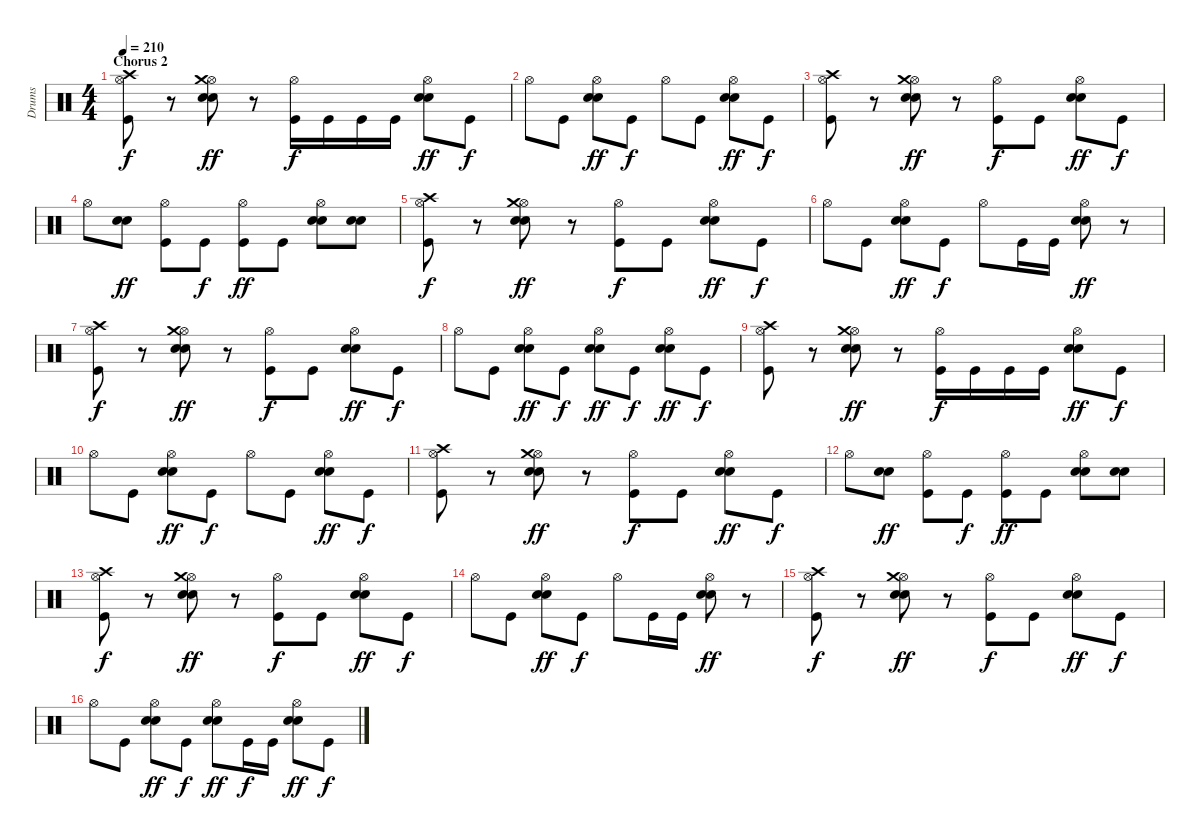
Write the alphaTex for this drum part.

\track ("Drums" "Drums") {instrument percussion}
\staff {score}
\articulation defaults
\ts (4 4)
\section ("" "Chorus 2")
\tempo 210
\clef neutral
\ks c
("Kick (hit)" "Hi-Hat (open)" "Crash high (hit)").8{dy f} r.8 ("Electric Snare (hit)" "Electric Snare (hit)" "Hi-Hat (open)" "Crash medium (hit)").8{dy ff} r.8 ("Kick (hit)" "Hi-Hat (open)").16{dy f} "Kick (hit)".16 "Kick (hit)".16 "Kick (hit)".16 ("Electric Snare (hit)" "Electric Snare (hit)" "Hi-Hat (open)").8{dy ff} "Kick (hit)".8{dy f} |
"Hi-Hat (open)".8 "Kick (hit)".8 ("Electric Snare (hit)" "Electric Snare (hit)" "Hi-Hat (open)").8{dy ff} "Kick (hit)".8{dy f} "Hi-Hat (open)".8 "Kick (hit)".8 ("Electric Snare (hit)" "Electric Snare (hit)" "Hi-Hat (open)").8{dy ff} "Kick (hit)".8{dy f} |
("Kick (hit)" "Hi-Hat (open)" "Crash high (hit)").8 r.8 ("Electric Snare (hit)" "Electric Snare (hit)" "Hi-Hat (open)" "Crash medium (hit)").8{dy ff} r.8 ("Kick (hit)" "Hi-Hat (open)").8{dy f} "Kick (hit)".8 ("Electric Snare (hit)" "Electric Snare (hit)" "Hi-Hat (open)").8{dy ff} "Kick (hit)".8{dy f} |
"Hi-Hat (open)".8 ("Electric Snare (hit)" "Electric Snare (hit)").8{dy ff} ("Kick (hit)" "Hi-Hat (open)").8 "Kick (hit)".8{dy f} ("Kick (hit)" "Hi-Hat (open)").8{dy ff} "Kick (hit)".8 ("Electric Snare (hit)" "Electric Snare (hit)" "Hi-Hat (open)").8 ("Electric Snare (hit)" "Electric Snare (hit)").8 |
("Kick (hit)" "Hi-Hat (open)" "Crash high (hit)").8{dy f} r.8 ("Electric Snare (hit)" "Electric Snare (hit)" "Hi-Hat (open)" "Crash medium (hit)").8{dy ff} r.8 ("Kick (hit)" "Hi-Hat (open)").8{dy f} "Kick (hit)".8 ("Electric Snare (hit)" "Electric Snare (hit)" "Hi-Hat (open)").8{dy ff} "Kick (hit)".8{dy f} |
"Hi-Hat (open)".8 "Kick (hit)".8 ("Electric Snare (hit)" "Electric Snare (hit)" "Hi-Hat (open)").8{dy ff} "Kick (hit)".8{dy f} "Hi-Hat (open)".8 "Kick (hit)".16 "Kick (hit)".16 ("Electric Snare (hit)" "Electric Snare (hit)" "Hi-Hat (open)").8{dy ff} r.8 |
("Kick (hit)" "Hi-Hat (open)" "Crash high (hit)").8{dy f} r.8 ("Electric Snare (hit)" "Electric Snare (hit)" "Hi-Hat (open)" "Crash medium (hit)").8{dy ff} r.8 ("Kick (hit)" "Hi-Hat (open)").8{dy f} "Kick (hit)".8 ("Electric Snare (hit)" "Electric Snare (hit)" "Hi-Hat (open)").8{dy ff} "Kick (hit)".8{dy f} |
"Hi-Hat (open)".8 "Kick (hit)".8 ("Electric Snare (hit)" "Electric Snare (hit)" "Hi-Hat (open)").8{dy ff} "Kick (hit)".8{dy f} ("Electric Snare (hit)" "Electric Snare (hit)" "Hi-Hat (open)").8{dy ff} "Kick (hit)".8{dy f} ("Electric Snare (hit)" "Electric Snare (hit)" "Hi-Hat (open)").8{dy ff} "Kick (hit)".8{dy f} |
("Kick (hit)" "Hi-Hat (open)" "Crash high (hit)").8 r.8 ("Electric Snare (hit)" "Electric Snare (hit)" "Hi-Hat (open)" "Crash medium (hit)").8{dy ff} r.8 ("Kick (hit)" "Hi-Hat (open)").16{dy f} "Kick (hit)".16 "Kick (hit)".16 "Kick (hit)".16 ("Electric Snare (hit)" "Electric Snare (hit)" "Hi-Hat (open)").8{dy ff} "Kick (hit)".8{dy f} |
"Hi-Hat (open)".8 "Kick (hit)".8 ("Electric Snare (hit)" "Electric Snare (hit)" "Hi-Hat (open)").8{dy ff} "Kick (hit)".8{dy f} "Hi-Hat (open)".8 "Kick (hit)".8 ("Electric Snare (hit)" "Electric Snare (hit)" "Hi-Hat (open)").8{dy ff} "Kick (hit)".8{dy f} |
("Kick (hit)" "Hi-Hat (open)" "Crash high (hit)").8 r.8 ("Electric Snare (hit)" "Electric Snare (hit)" "Hi-Hat (open)" "Crash medium (hit)").8{dy ff} r.8 ("Kick (hit)" "Hi-Hat (open)").8{dy f} "Kick (hit)".8 ("Electric Snare (hit)" "Electric Snare (hit)" "Hi-Hat (open)").8{dy ff} "Kick (hit)".8{dy f} |
"Hi-Hat (open)".8 ("Electric Snare (hit)" "Electric Snare (hit)").8{dy ff} ("Kick (hit)" "Hi-Hat (open)").8 "Kick (hit)".8{dy f} ("Kick (hit)" "Hi-Hat (open)").8{dy ff} "Kick (hit)".8 ("Electric Snare (hit)" "Electric Snare (hit)" "Hi-Hat (open)").8 ("Electric Snare (hit)" "Electric Snare (hit)").8 |
("Kick (hit)" "Hi-Hat (open)" "Crash high (hit)").8{dy f} r.8 ("Electric Snare (hit)" "Electric Snare (hit)" "Hi-Hat (open)" "Crash medium (hit)").8{dy ff} r.8 ("Kick (hit)" "Hi-Hat (open)").8{dy f} "Kick (hit)".8 ("Electric Snare (hit)" "Electric Snare (hit)" "Hi-Hat (open)").8{dy ff} "Kick (hit)".8{dy f} |
"Hi-Hat (open)".8 "Kick (hit)".8 ("Electric Snare (hit)" "Electric Snare (hit)" "Hi-Hat (open)").8{dy ff} "Kick (hit)".8{dy f} "Hi-Hat (open)".8 "Kick (hit)".16 "Kick (hit)".16 ("Electric Snare (hit)" "Electric Snare (hit)" "Hi-Hat (open)").8{dy ff} r.8 |
("Kick (hit)" "Hi-Hat (open)" "Crash high (hit)").8{dy f} r.8 ("Electric Snare (hit)" "Electric Snare (hit)" "Hi-Hat (open)" "Crash medium (hit)").8{dy ff} r.8 ("Kick (hit)" "Hi-Hat (open)").8{dy f} "Kick (hit)".8 ("Electric Snare (hit)" "Electric Snare (hit)" "Hi-Hat (open)").8{dy ff} "Kick (hit)".8{dy f} |
"Hi-Hat (open)".8 "Kick (hit)".8 ("Electric Snare (hit)" "Electric Snare (hit)" "Hi-Hat (open)").8{dy ff} "Kick (hit)".8{dy f} ("Electric Snare (hit)" "Electric Snare (hit)" "Hi-Hat (open)").8{dy ff} "Kick (hit)".16{dy f} "Kick (hit)".16 ("Electric Snare (hit)" "Electric Snare (hit)" "Hi-Hat (open)").8{dy ff} "Kick (hit)".8{dy f}
